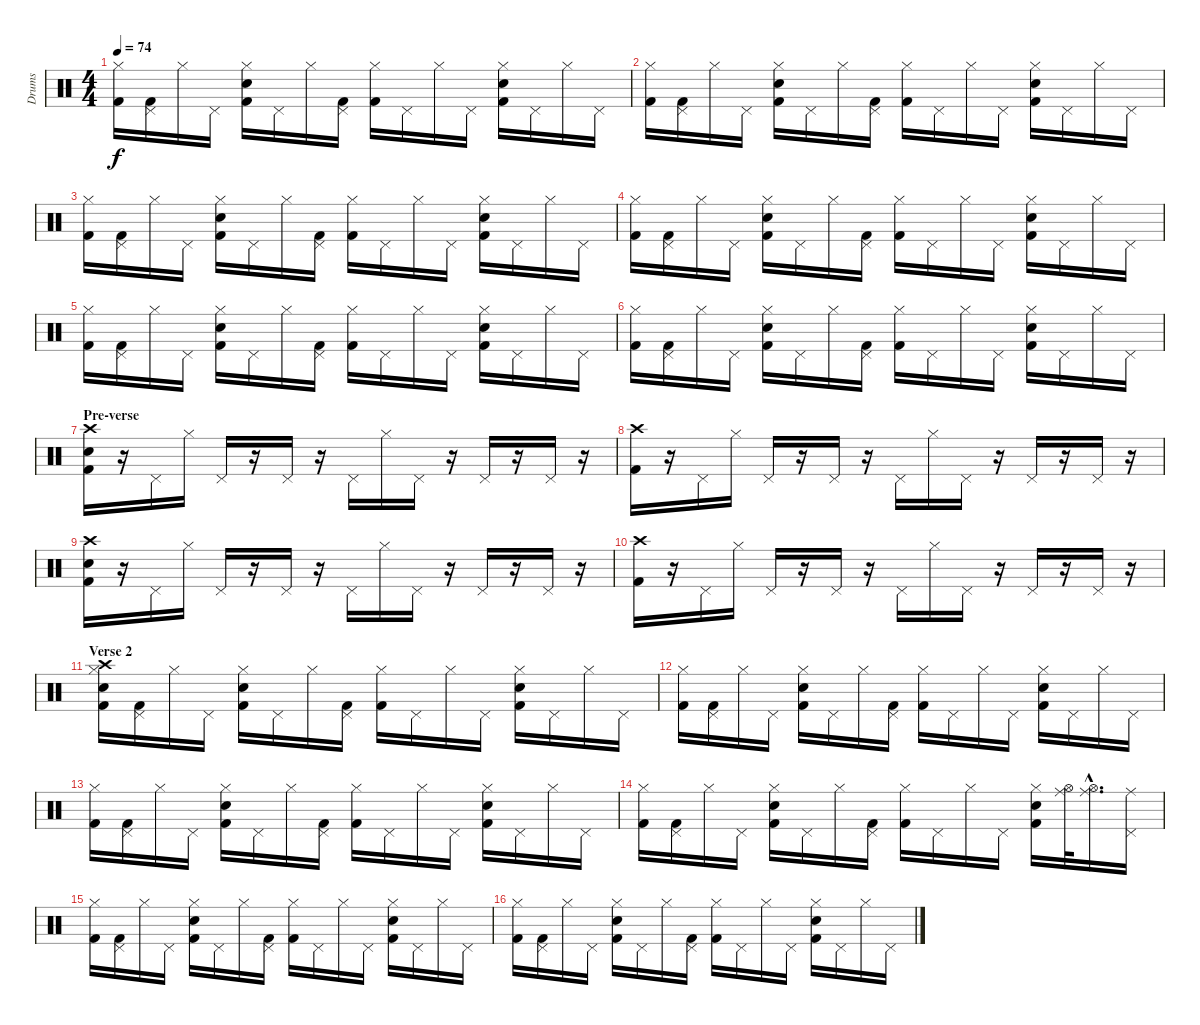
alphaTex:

\track ("Drums" "Drums") {instrument percussion}
\staff {score}
\articulation defaults
\ts (4 4)
\tempo 74
\clef neutral
\ks c
("Hi-Hat (closed)" "Kick (hit) 2").16{dy f} ("Pedal Hi-Hat (hit)" "Kick (hit) 2").16 "Hi-Hat (closed)".16 "Pedal Hi-Hat (hit)".16 ("Hi-Hat (closed)" "Kick (hit) 2" "Snare (hit) 2").16 "Pedal Hi-Hat (hit)".16 "Hi-Hat (closed)".16 ("Pedal Hi-Hat (hit)" "Kick (hit) 2").16 ("Hi-Hat (closed)" "Kick (hit) 2").16 "Pedal Hi-Hat (hit)".16 "Hi-Hat (closed)".16 "Pedal Hi-Hat (hit)".16 ("Hi-Hat (closed)" "Kick (hit) 2" "Snare (hit) 2").16 "Pedal Hi-Hat (hit)".16 "Hi-Hat (closed)".16 "Pedal Hi-Hat (hit)".16 |
("Hi-Hat (closed)" "Kick (hit) 2").16 ("Pedal Hi-Hat (hit)" "Kick (hit) 2").16 "Hi-Hat (closed)".16 "Pedal Hi-Hat (hit)".16 ("Hi-Hat (closed)" "Kick (hit) 2" "Snare (hit) 2").16 "Pedal Hi-Hat (hit)".16 "Hi-Hat (closed)".16 ("Pedal Hi-Hat (hit)" "Kick (hit) 2").16 ("Hi-Hat (closed)" "Kick (hit) 2").16 "Pedal Hi-Hat (hit)".16 "Hi-Hat (closed)".16 "Pedal Hi-Hat (hit)".16 ("Hi-Hat (closed)" "Kick (hit) 2" "Snare (hit) 2").16 "Pedal Hi-Hat (hit)".16 "Hi-Hat (closed)".16 "Pedal Hi-Hat (hit)".16 |
("Hi-Hat (closed)" "Kick (hit) 2").16 ("Pedal Hi-Hat (hit)" "Kick (hit) 2").16 "Hi-Hat (closed)".16 "Pedal Hi-Hat (hit)".16 ("Hi-Hat (closed)" "Kick (hit) 2" "Snare (hit) 2").16 "Pedal Hi-Hat (hit)".16 "Hi-Hat (closed)".16 ("Pedal Hi-Hat (hit)" "Kick (hit) 2").16 ("Hi-Hat (closed)" "Kick (hit) 2").16 "Pedal Hi-Hat (hit)".16 "Hi-Hat (closed)".16 "Pedal Hi-Hat (hit)".16 ("Hi-Hat (closed)" "Kick (hit) 2" "Snare (hit) 2").16 "Pedal Hi-Hat (hit)".16 "Hi-Hat (closed)".16 "Pedal Hi-Hat (hit)".16 |
("Hi-Hat (closed)" "Kick (hit) 2").16 ("Pedal Hi-Hat (hit)" "Kick (hit) 2").16 "Hi-Hat (closed)".16 "Pedal Hi-Hat (hit)".16 ("Hi-Hat (closed)" "Kick (hit) 2" "Snare (hit) 2").16 "Pedal Hi-Hat (hit)".16 "Hi-Hat (closed)".16 ("Pedal Hi-Hat (hit)" "Kick (hit) 2").16 ("Hi-Hat (closed)" "Kick (hit) 2").16 "Pedal Hi-Hat (hit)".16 "Hi-Hat (closed)".16 "Pedal Hi-Hat (hit)".16 ("Hi-Hat (closed)" "Kick (hit) 2" "Snare (hit) 2").16 "Pedal Hi-Hat (hit)".16 "Hi-Hat (closed)".16 "Pedal Hi-Hat (hit)".16 |
("Hi-Hat (closed)" "Kick (hit) 2").16 ("Pedal Hi-Hat (hit)" "Kick (hit) 2").16 "Hi-Hat (closed)".16 "Pedal Hi-Hat (hit)".16 ("Hi-Hat (closed)" "Kick (hit) 2" "Snare (hit) 2").16 "Pedal Hi-Hat (hit)".16 "Hi-Hat (closed)".16 ("Pedal Hi-Hat (hit)" "Kick (hit) 2").16 ("Hi-Hat (closed)" "Kick (hit) 2").16 "Pedal Hi-Hat (hit)".16 "Hi-Hat (closed)".16 "Pedal Hi-Hat (hit)".16 ("Hi-Hat (closed)" "Kick (hit) 2" "Snare (hit) 2").16 "Pedal Hi-Hat (hit)".16 "Hi-Hat (closed)".16 "Pedal Hi-Hat (hit)".16 |
("Hi-Hat (closed)" "Kick (hit) 2").16 ("Pedal Hi-Hat (hit)" "Kick (hit) 2").16 "Hi-Hat (closed)".16 "Pedal Hi-Hat (hit)".16 ("Hi-Hat (closed)" "Kick (hit) 2" "Snare (hit) 2").16 "Pedal Hi-Hat (hit)".16 "Hi-Hat (closed)".16 ("Pedal Hi-Hat (hit)" "Kick (hit) 2").16 ("Hi-Hat (closed)" "Kick (hit) 2").16 "Pedal Hi-Hat (hit)".16 "Hi-Hat (closed)".16 "Pedal Hi-Hat (hit)".16 ("Hi-Hat (closed)" "Kick (hit) 2" "Snare (hit) 2").16 "Pedal Hi-Hat (hit)".16 "Hi-Hat (closed)".16 "Pedal Hi-Hat (hit)".16 |
\section ("" "Pre-verse")
("Crash high (hit)" "Kick (hit) 2" "Snare (hit) 2").16 r.16 "Pedal Hi-Hat (hit)".16 "Hi-Hat (closed)".16 "Pedal Hi-Hat (hit)".16 r.16 "Pedal Hi-Hat (hit)".16 r.16 "Pedal Hi-Hat (hit)".16 "Hi-Hat (closed)".16 "Pedal Hi-Hat (hit)".16 r.16 "Pedal Hi-Hat (hit)".16 r.16 "Pedal Hi-Hat (hit)".16 r.16 |
("Crash high (hit)" "Kick (hit) 2").16 r.16 "Pedal Hi-Hat (hit)".16 "Hi-Hat (closed)".16 "Pedal Hi-Hat (hit)".16 r.16 "Pedal Hi-Hat (hit)".16 r.16 "Pedal Hi-Hat (hit)".16 "Hi-Hat (closed)".16 "Pedal Hi-Hat (hit)".16 r.16 "Pedal Hi-Hat (hit)".16 r.16 "Pedal Hi-Hat (hit)".16 r.16 |
("Crash high (hit)" "Kick (hit) 2" "Snare (hit) 2").16 r.16 "Pedal Hi-Hat (hit)".16 "Hi-Hat (closed)".16 "Pedal Hi-Hat (hit)".16 r.16 "Pedal Hi-Hat (hit)".16 r.16 "Pedal Hi-Hat (hit)".16 "Hi-Hat (closed)".16 "Pedal Hi-Hat (hit)".16 r.16 "Pedal Hi-Hat (hit)".16 r.16 "Pedal Hi-Hat (hit)".16 r.16 |
("Crash high (hit)" "Kick (hit) 2").16 r.16 "Pedal Hi-Hat (hit)".16 "Hi-Hat (closed)".16 "Pedal Hi-Hat (hit)".16 r.16 "Pedal Hi-Hat (hit)".16 r.16 "Pedal Hi-Hat (hit)".16 "Hi-Hat (closed)".16 "Pedal Hi-Hat (hit)".16 r.16 "Pedal Hi-Hat (hit)".16 r.16 "Pedal Hi-Hat (hit)".16 r.16 |
\section ("" "Verse 2")
("Hi-Hat (closed)" "Crash high (hit)" "Kick (hit) 2" "Snare (hit) 2").16 ("Pedal Hi-Hat (hit)" "Kick (hit) 2").16 "Hi-Hat (closed)".16 "Pedal Hi-Hat (hit)".16 ("Hi-Hat (closed)" "Kick (hit) 2" "Snare (hit) 2").16 "Pedal Hi-Hat (hit)".16 "Hi-Hat (closed)".16 ("Pedal Hi-Hat (hit)" "Kick (hit) 2").16 ("Hi-Hat (closed)" "Kick (hit) 2").16 "Pedal Hi-Hat (hit)".16 "Hi-Hat (closed)".16 "Pedal Hi-Hat (hit)".16 ("Hi-Hat (closed)" "Kick (hit) 2" "Snare (hit) 2").16 "Pedal Hi-Hat (hit)".16 "Hi-Hat (closed)".16 "Pedal Hi-Hat (hit)".16 |
("Hi-Hat (closed)" "Kick (hit) 2").16 ("Pedal Hi-Hat (hit)" "Kick (hit) 2").16 "Hi-Hat (closed)".16 "Pedal Hi-Hat (hit)".16 ("Hi-Hat (closed)" "Kick (hit) 2" "Snare (hit) 2").16 "Pedal Hi-Hat (hit)".16 "Hi-Hat (closed)".16 ("Pedal Hi-Hat (hit)" "Kick (hit) 2").16 ("Hi-Hat (closed)" "Kick (hit) 2").16 "Pedal Hi-Hat (hit)".16 "Hi-Hat (closed)".16 "Pedal Hi-Hat (hit)".16 ("Hi-Hat (closed)" "Kick (hit) 2" "Snare (hit) 2").16 "Pedal Hi-Hat (hit)".16 "Hi-Hat (closed)".16 "Pedal Hi-Hat (hit)".16 |
("Hi-Hat (closed)" "Kick (hit) 2").16 ("Pedal Hi-Hat (hit)" "Kick (hit) 2").16 "Hi-Hat (closed)".16 "Pedal Hi-Hat (hit)".16 ("Hi-Hat (closed)" "Kick (hit) 2" "Snare (hit) 2").16 "Pedal Hi-Hat (hit)".16 "Hi-Hat (closed)".16 ("Pedal Hi-Hat (hit)" "Kick (hit) 2").16 ("Hi-Hat (closed)" "Kick (hit) 2").16 "Pedal Hi-Hat (hit)".16 "Hi-Hat (closed)".16 "Pedal Hi-Hat (hit)".16 ("Hi-Hat (closed)" "Kick (hit) 2" "Snare (hit) 2").16 "Pedal Hi-Hat (hit)".16 "Hi-Hat (closed)".16 "Pedal Hi-Hat (hit)".16 |
("Hi-Hat (closed)" "Kick (hit) 2").16 ("Pedal Hi-Hat (hit)" "Kick (hit) 2").16 "Hi-Hat (closed)".16 "Pedal Hi-Hat (hit)".16 ("Hi-Hat (closed)" "Kick (hit) 2" "Snare (hit) 2").16 "Pedal Hi-Hat (hit)".16 "Hi-Hat (closed)".16 ("Pedal Hi-Hat (hit)" "Kick (hit) 2").16 ("Hi-Hat (closed)" "Kick (hit) 2").16 "Pedal Hi-Hat (hit)".16 "Hi-Hat (closed)".16 "Pedal Hi-Hat (hit)".16 ("Hi-Hat (closed)" "Kick (hit) 2" "Snare (hit) 2").16 ("Hi-Hat (open)" "Ride (middle)").32 ("Hi-Hat (open)"{hac} "Ride (middle)"{hac}).16{d} ("Pedal Hi-Hat (hit)" "Ride (middle)").16 |
("Hi-Hat (closed)" "Kick (hit) 2").16 ("Pedal Hi-Hat (hit)" "Kick (hit) 2").16 "Hi-Hat (closed)".16 "Pedal Hi-Hat (hit)".16 ("Hi-Hat (closed)" "Kick (hit) 2" "Snare (hit) 2").16 "Pedal Hi-Hat (hit)".16 "Hi-Hat (closed)".16 ("Pedal Hi-Hat (hit)" "Kick (hit) 2").16 ("Hi-Hat (closed)" "Kick (hit) 2").16 "Pedal Hi-Hat (hit)".16 "Hi-Hat (closed)".16 "Pedal Hi-Hat (hit)".16 ("Hi-Hat (closed)" "Kick (hit) 2" "Snare (hit) 2").16 "Pedal Hi-Hat (hit)".16 "Hi-Hat (closed)".16 "Pedal Hi-Hat (hit)".16 |
("Hi-Hat (closed)" "Kick (hit) 2").16 ("Pedal Hi-Hat (hit)" "Kick (hit) 2").16 "Hi-Hat (closed)".16 "Pedal Hi-Hat (hit)".16 ("Hi-Hat (closed)" "Kick (hit) 2" "Snare (hit) 2").16 "Pedal Hi-Hat (hit)".16 "Hi-Hat (closed)".16 ("Pedal Hi-Hat (hit)" "Kick (hit) 2").16 ("Hi-Hat (closed)" "Kick (hit) 2").16 "Pedal Hi-Hat (hit)".16 "Hi-Hat (closed)".16 "Pedal Hi-Hat (hit)".16 ("Hi-Hat (closed)" "Kick (hit) 2" "Snare (hit) 2").16 "Pedal Hi-Hat (hit)".16 "Hi-Hat (closed)".16 "Pedal Hi-Hat (hit)".16
